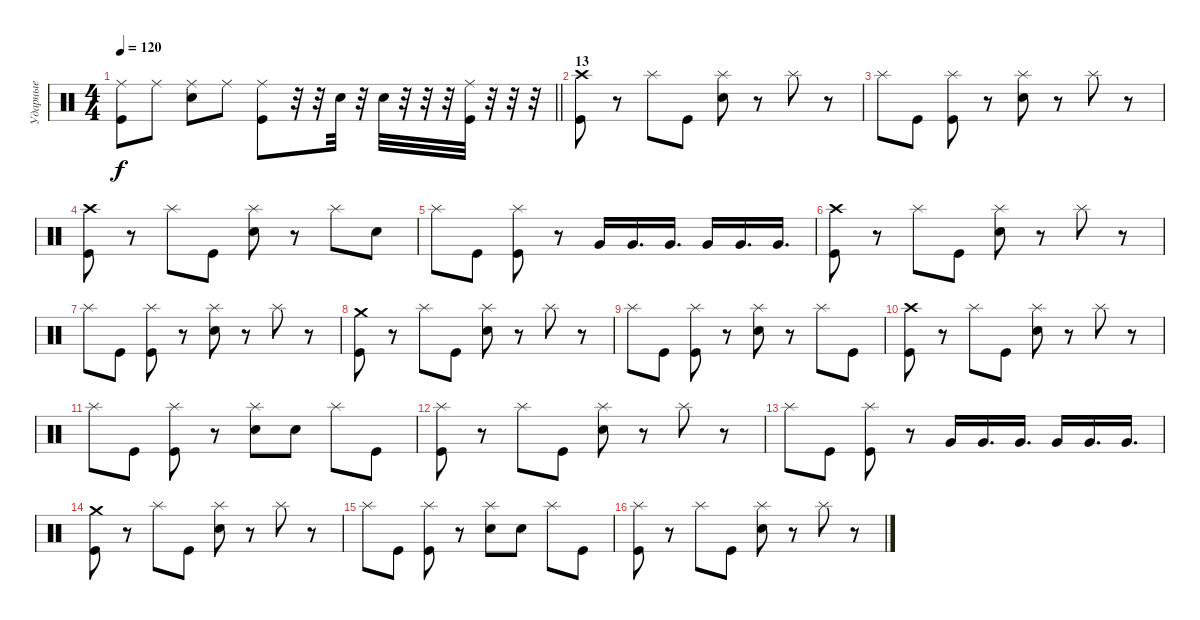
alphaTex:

\track ("Ударные" "Ударные") {instrument percussion}
\staff {score}
\articulation defaults
\ts (4 4)
\tempo 120
\clef neutral
\barLineRight lightlight
\ks c
("Ride (middle)" "Kick (hit)").8{dy f} "Ride (middle)".8 ("Ride (middle)" "Electric Snare (hit)").8 "Ride (middle)".8 ("Ride (middle)" "Kick (hit)").8 r.32 r.32 "Electric Snare (hit)".32 r.32 "Electric Snare (hit)".32 r.32 r.32 r.32 ("Ride (middle)" "Kick (hit)").32 r.32 r.32 r.32 |
\section ("" "13")
("Crash high (hit)" "Kick (hit)").8 r.8 "Splash (hit)".8 "Kick (hit)".8 ("Splash (hit)" "Electric Snare (hit)").8 r.8 "Splash (hit)".8 r.8 |
"Splash (hit)".8 "Kick (hit)".8 ("Splash (hit)" "Kick (hit)").8 r.8 ("Splash (hit)" "Electric Snare (hit)").8 r.8 "Splash (hit)".8 r.8 |
("Crash high (hit)" "Kick (hit)").8 r.8 "Splash (hit)".8 "Kick (hit)".8 ("Splash (hit)" "Electric Snare (hit)").8 r.8 "Splash (hit)".8 "Electric Snare (hit)".8 |
"Splash (hit)".8 "Kick (hit)".8 ("Splash (hit)" "Kick (hit)").8 r.8 "Very Low Tom (hit)".16 "Very Low Tom (hit)".16{d} "Very Low Tom (hit)".16{d} "Very Low Tom (hit)".16 "Very Low Tom (hit)".16{d} "Very Low Tom (hit)".16{d} |
("Crash high (hit)" "Kick (hit)").8 r.8 "Splash (hit)".8 "Kick (hit)".8 ("Splash (hit)" "Electric Snare (hit)").8 r.8 "Splash (hit)".8 r.8 |
"Splash (hit)".8 "Kick (hit)".8 ("Splash (hit)" "Kick (hit)").8 r.8 ("Splash (hit)" "Electric Snare (hit)").8 r.8 "Splash (hit)".8 r.8 |
("Crash medium (hit)" "Kick (hit)").8 r.8 "Splash (hit)".8 "Kick (hit)".8 ("Splash (hit)" "Electric Snare (hit)").8 r.8 "Splash (hit)".8 r.8 |
"Splash (hit)".8 "Kick (hit)".8 ("Splash (hit)" "Kick (hit)").8 r.8 ("Splash (hit)" "Electric Snare (hit)").8 r.8 "Splash (hit)".8 "Kick (hit)".8 |
("Crash high (hit)" "Kick (hit)").8 r.8 "Splash (hit)".8 "Kick (hit)".8 ("Splash (hit)" "Electric Snare (hit)").8 r.8 "Splash (hit)".8 r.8 |
"Splash (hit)".8 "Kick (hit)".8 ("Splash (hit)" "Kick (hit)").8 r.8 ("Splash (hit)" "Electric Snare (hit)").8 "Electric Snare (hit)".8 "Splash (hit)".8 "Kick (hit)".8 |
("Splash (hit)" "Kick (hit)").8 r.8 "Splash (hit)".8 "Kick (hit)".8 ("Splash (hit)" "Electric Snare (hit)").8 r.8 "Splash (hit)".8 r.8 |
"Splash (hit)".8 "Kick (hit)".8 ("Splash (hit)" "Kick (hit)").8 r.8 "Very Low Tom (hit)".16 "Very Low Tom (hit)".16{d} "Very Low Tom (hit)".16{d} "Very Low Tom (hit)".16 "Very Low Tom (hit)".16{d} "Very Low Tom (hit)".16{d} |
("Crash medium (hit)" "Kick (hit)").8 r.8 "Splash (hit)".8 "Kick (hit)".8 ("Splash (hit)" "Electric Snare (hit)").8 r.8 "Splash (hit)".8 r.8 |
"Splash (hit)".8 "Kick (hit)".8 ("Splash (hit)" "Kick (hit)").8 r.8 ("Splash (hit)" "Electric Snare (hit)").8 "Electric Snare (hit)".8 "Splash (hit)".8 "Kick (hit)".8 |
("Splash (hit)" "Kick (hit)").8 r.8 "Splash (hit)".8 "Kick (hit)".8 ("Splash (hit)" "Electric Snare (hit)").8 r.8 "Splash (hit)".8 r.8
